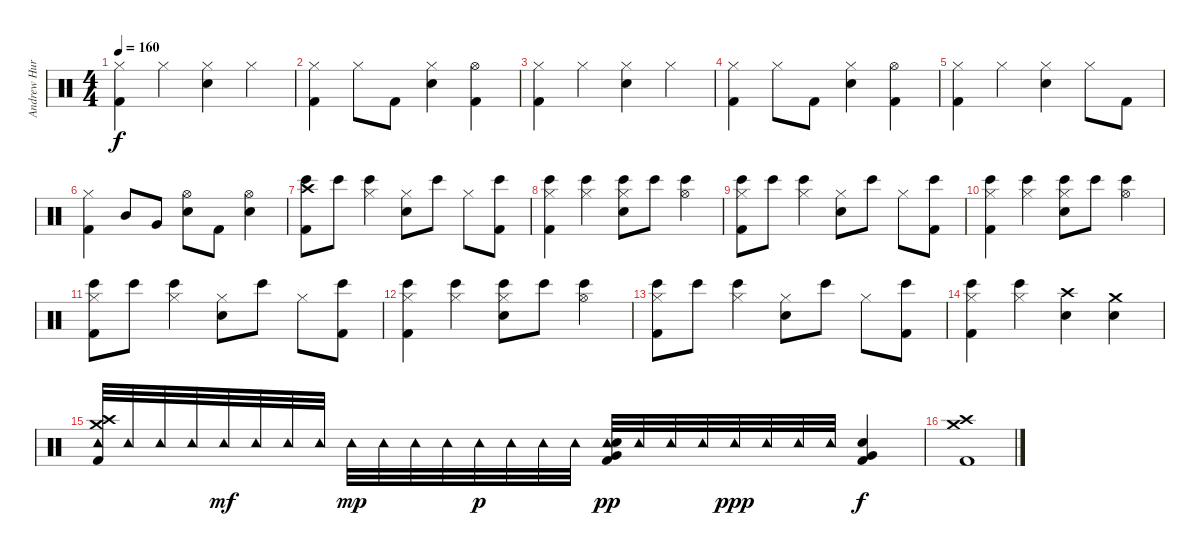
\track ("Andrew Hurley (Drums)" "Andrew Hur") {instrument percussion}
\staff {score}
\articulation defaults
\ts (4 4)
\tempo 160
\clef neutral
\ks c
("Hi-Hat (closed)" "Kick (hit) 2").4{dy f} "Hi-Hat (closed)".4 ("Hi-Hat (closed)" "Snare (hit) 2").4 "Hi-Hat (closed)".4 |
("Hi-Hat (closed)" "Kick (hit) 2").4 "Hi-Hat (closed)".8 "Kick (hit) 2".8 ("Hi-Hat (closed)" "Snare (hit) 2").4 ("Hi-Hat (open)" "Kick (hit) 2").4 |
("Hi-Hat (closed)" "Kick (hit) 2").4 "Hi-Hat (closed)".4 ("Hi-Hat (closed)" "Snare (hit) 2").4 "Hi-Hat (closed)".4 |
("Hi-Hat (closed)" "Kick (hit) 2").4 "Hi-Hat (closed)".8 "Kick (hit) 2".8 ("Hi-Hat (closed)" "Snare (hit) 2").4 ("Hi-Hat (open)" "Kick (hit) 2").4 |
("Hi-Hat (closed)" "Kick (hit) 2").4 "Hi-Hat (closed)".4 ("Hi-Hat (closed)" "Snare (hit) 2").4 "Hi-Hat (closed)".8 "Kick (hit) 2".8 |
("Hi-Hat (closed)" "Kick (hit) 2").4 "Mid Tom (hit)".8 "Very Low Tom (hit)".8 ("Hi-Hat (open)" "Snare (hit) 2").8 "Kick (hit) 2".8 ("Hi-Hat (open)" "Snare (hit) 2").4 |
("Crash high (hit)" "Bongo High (hit)" "Kick (hit) 2").8 "Bongo High (hit)".8 ("Hi-Hat (closed)" "Bongo High (hit)").4 ("Hi-Hat (closed)" "Snare (hit) 2").8 "Bongo High (hit)".8 "Hi-Hat (closed)".8 ("Bongo High (hit)" "Kick (hit) 2").8 |
("Hi-Hat (closed)" "Bongo High (hit)" "Kick (hit) 2").4 ("Hi-Hat (closed)" "Bongo High (hit)").4 ("Hi-Hat (closed)" "Bongo High (hit)" "Snare (hit) 2").8 "Bongo High (hit)".8 ("Hi-Hat (open)" "Bongo High (hit)").4 |
("Hi-Hat (closed)" "Bongo High (hit)" "Kick (hit) 2").8 "Bongo High (hit)".8 ("Hi-Hat (closed)" "Bongo High (hit)").4 ("Hi-Hat (closed)" "Snare (hit) 2").8 "Bongo High (hit)".8 "Hi-Hat (closed)".8 ("Bongo High (hit)" "Kick (hit) 2").8 |
("Hi-Hat (closed)" "Bongo High (hit)" "Kick (hit) 2").4 ("Hi-Hat (closed)" "Bongo High (hit)").4 ("Hi-Hat (closed)" "Bongo High (hit)" "Snare (hit) 2").8 "Bongo High (hit)".8 ("Hi-Hat (open)" "Bongo High (hit)").4 |
("Hi-Hat (closed)" "Bongo High (hit)" "Kick (hit) 2").8 "Bongo High (hit)".8 ("Hi-Hat (closed)" "Bongo High (hit)").4 ("Hi-Hat (closed)" "Snare (hit) 2").8 "Bongo High (hit)".8 "Hi-Hat (closed)".8 ("Bongo High (hit)" "Kick (hit) 2").8 |
("Hi-Hat (closed)" "Bongo High (hit)" "Kick (hit) 2").4 ("Hi-Hat (closed)" "Bongo High (hit)").4 ("Hi-Hat (closed)" "Bongo High (hit)" "Snare (hit) 2").8 "Bongo High (hit)".8 ("Hi-Hat (open)" "Bongo High (hit)").4 |
("Hi-Hat (closed)" "Bongo High (hit)" "Kick (hit) 2").8 "Bongo High (hit)".8 ("Hi-Hat (closed)" "Bongo High (hit)").4 ("Hi-Hat (closed)" "Snare (hit) 2").8 "Bongo High (hit)".8 "Hi-Hat (closed)".8 ("Bongo High (hit)" "Kick (hit) 2").8 |
("Hi-Hat (closed)" "Bongo High (hit)" "Kick (hit) 2").4 ("Hi-Hat (closed)" "Bongo High (hit)").4 ("Crash high (hit)" "Snare (hit) 2").4 ("Crash medium (hit)" "Snare (hit) 2").4 |
("Crash high (hit)" "Crash medium (hit)" "Tambourine (hit)" "Kick (hit) 2").32 "Tambourine (hit)".32 "Tambourine (hit)".32 "Tambourine (hit)".32 "Tambourine (hit)".32{dy mf} "Tambourine (hit)".32 "Tambourine (hit)".32 "Tambourine (hit)".32 "Tambourine (hit)".32{dy mp} "Tambourine (hit)".32 "Tambourine (hit)".32 "Tambourine (hit)".32 "Tambourine (hit)".32{dy p} "Tambourine (hit)".32 "Tambourine (hit)".32 "Tambourine (hit)".32 ("Tambourine (hit)" "Very Low Tom (hit)" "Snare (hit) 2" "Kick (hit) 2").32{dy pp} "Tambourine (hit)".32 "Tambourine (hit)".32 "Tambourine (hit)".32 "Tambourine (hit)".32{dy ppp} "Tambourine (hit)".32 "Tambourine (hit)".32 "Tambourine (hit)".32 ("Very Low Tom (hit)" "Snare (hit) 2" "Kick (hit) 2").4{dy f} |
("Crash high (hit)" "Crash medium (hit)" "Kick (hit) 2").1
